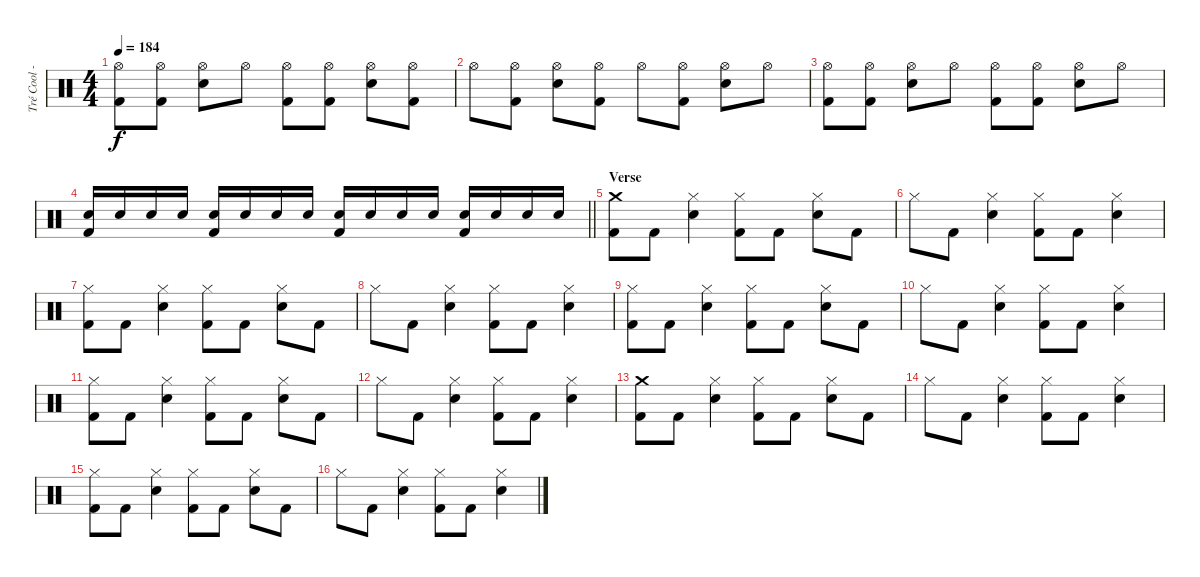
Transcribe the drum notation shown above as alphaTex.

\track ("Tré Cool - Drums" "Tré Cool -") {instrument percussion}
\staff {score}
\articulation defaults
\ts (4 4)
\tempo 184
\clef neutral
\ks c
("Hi-Hat (open)" "Kick (hit) 2").8{dy f} ("Hi-Hat (open)" "Kick (hit) 2").8 ("Hi-Hat (open)" "Electric Snare (hit)").8 "Hi-Hat (open)".8 ("Hi-Hat (open)" "Kick (hit) 2").8 ("Hi-Hat (open)" "Kick (hit) 2").8 ("Hi-Hat (open)" "Electric Snare (hit)").8 ("Hi-Hat (open)" "Kick (hit) 2").8 |
"Hi-Hat (open)".8 ("Hi-Hat (open)" "Kick (hit) 2").8 ("Hi-Hat (open)" "Electric Snare (hit)").8 ("Hi-Hat (open)" "Kick (hit) 2").8 "Hi-Hat (open)".8 ("Hi-Hat (open)" "Kick (hit) 2").8 ("Hi-Hat (open)" "Electric Snare (hit)").8 "Hi-Hat (open)".8 |
("Hi-Hat (open)" "Kick (hit) 2").8 ("Hi-Hat (open)" "Kick (hit) 2").8 ("Hi-Hat (open)" "Electric Snare (hit)").8 "Hi-Hat (open)".8 ("Hi-Hat (open)" "Kick (hit) 2").8 ("Hi-Hat (open)" "Kick (hit) 2").8 ("Hi-Hat (open)" "Electric Snare (hit)").8 "Hi-Hat (open)".8 |
\barLineRight lightlight
("Electric Snare (hit)" "Kick (hit) 2").16 "Electric Snare (hit)".16 "Electric Snare (hit)".16 "Electric Snare (hit)".16 ("Electric Snare (hit)" "Kick (hit) 2").16 "Electric Snare (hit)".16 "Electric Snare (hit)".16 "Electric Snare (hit)".16 ("Electric Snare (hit)" "Kick (hit) 2").16 "Electric Snare (hit)".16 "Electric Snare (hit)".16 "Electric Snare (hit)".16 ("Electric Snare (hit)" "Kick (hit) 2").16 "Electric Snare (hit)".16 "Electric Snare (hit)".16 "Electric Snare (hit)".16 |
\section ("" "Verse")
("Crash medium (hit)" "Kick (hit) 2").8 "Kick (hit) 2".8 ("Hi-Hat (closed)" "Electric Snare (hit)").4 ("Hi-Hat (closed)" "Kick (hit) 2").8 "Kick (hit) 2".8 ("Hi-Hat (closed)" "Electric Snare (hit)").8 "Kick (hit) 2".8 |
"Hi-Hat (closed)".8 "Kick (hit) 2".8 ("Hi-Hat (closed)" "Electric Snare (hit)").4 ("Hi-Hat (closed)" "Kick (hit) 2").8 "Kick (hit) 2".8 ("Hi-Hat (closed)" "Electric Snare (hit)").4 |
("Hi-Hat (closed)" "Kick (hit) 2").8 "Kick (hit) 2".8 ("Hi-Hat (closed)" "Electric Snare (hit)").4 ("Hi-Hat (closed)" "Kick (hit) 2").8 "Kick (hit) 2".8 ("Hi-Hat (closed)" "Electric Snare (hit)").8 "Kick (hit) 2".8 |
"Hi-Hat (closed)".8 "Kick (hit) 2".8 ("Hi-Hat (closed)" "Electric Snare (hit)").4 ("Hi-Hat (closed)" "Kick (hit) 2").8 "Kick (hit) 2".8 ("Hi-Hat (closed)" "Electric Snare (hit)").4 |
("Hi-Hat (closed)" "Kick (hit) 2").8 "Kick (hit) 2".8 ("Hi-Hat (closed)" "Electric Snare (hit)").4 ("Hi-Hat (closed)" "Kick (hit) 2").8 "Kick (hit) 2".8 ("Hi-Hat (closed)" "Electric Snare (hit)").8 "Kick (hit) 2".8 |
"Hi-Hat (closed)".8 "Kick (hit) 2".8 ("Hi-Hat (closed)" "Electric Snare (hit)").4 ("Hi-Hat (closed)" "Kick (hit) 2").8 "Kick (hit) 2".8 ("Hi-Hat (closed)" "Electric Snare (hit)").4 |
("Hi-Hat (closed)" "Kick (hit) 2").8 "Kick (hit) 2".8 ("Hi-Hat (closed)" "Electric Snare (hit)").4 ("Hi-Hat (closed)" "Kick (hit) 2").8 "Kick (hit) 2".8 ("Hi-Hat (closed)" "Electric Snare (hit)").8 "Kick (hit) 2".8 |
"Hi-Hat (closed)".8 "Kick (hit) 2".8 ("Hi-Hat (closed)" "Electric Snare (hit)").4 ("Hi-Hat (closed)" "Kick (hit) 2").8 "Kick (hit) 2".8 ("Hi-Hat (closed)" "Electric Snare (hit)").4 |
("Crash medium (hit)" "Kick (hit) 2").8 "Kick (hit) 2".8 ("Hi-Hat (closed)" "Electric Snare (hit)").4 ("Hi-Hat (closed)" "Kick (hit) 2").8 "Kick (hit) 2".8 ("Hi-Hat (closed)" "Electric Snare (hit)").8 "Kick (hit) 2".8 |
"Hi-Hat (closed)".8 "Kick (hit) 2".8 ("Hi-Hat (closed)" "Electric Snare (hit)").4 ("Hi-Hat (closed)" "Kick (hit) 2").8 "Kick (hit) 2".8 ("Hi-Hat (closed)" "Electric Snare (hit)").4 |
("Hi-Hat (closed)" "Kick (hit) 2").8 "Kick (hit) 2".8 ("Hi-Hat (closed)" "Electric Snare (hit)").4 ("Hi-Hat (closed)" "Kick (hit) 2").8 "Kick (hit) 2".8 ("Hi-Hat (closed)" "Electric Snare (hit)").8 "Kick (hit) 2".8 |
"Hi-Hat (closed)".8 "Kick (hit) 2".8 ("Hi-Hat (closed)" "Electric Snare (hit)").4 ("Hi-Hat (closed)" "Kick (hit) 2").8 "Kick (hit) 2".8 ("Hi-Hat (closed)" "Electric Snare (hit)").4
